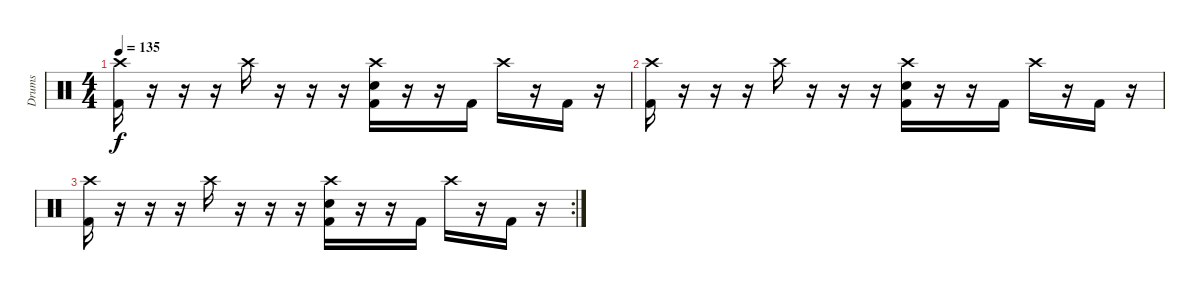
\track ("Drums" "Drums") {instrument percussion}
\staff {score}
\articulation defaults
\ts (4 4)
\tempo 135
\clef neutral
\ks c
("Crash high (hit)" "Kick (hit) 2").16{dy f} r.16 r.16 r.16 "Crash high (hit)".16 r.16 r.16 r.16 ("Crash high (hit)" "Electric Snare (hit)" "Kick (hit) 2").16 r.16 r.16 "Kick (hit) 2".16 "Crash high (hit)".16 r.16 "Kick (hit) 2".16 r.16 |
("Crash high (hit)" "Kick (hit) 2").16 r.16 r.16 r.16 "Crash high (hit)".16 r.16 r.16 r.16 ("Crash high (hit)" "Electric Snare (hit)" "Kick (hit) 2").16 r.16 r.16 "Kick (hit) 2".16 "Crash high (hit)".16 r.16 "Kick (hit) 2".16 r.16 |
\rc 2
("Crash high (hit)" "Kick (hit) 2").16 r.16 r.16 r.16 "Crash high (hit)".16 r.16 r.16 r.16 ("Crash high (hit)" "Electric Snare (hit)" "Kick (hit) 2").16 r.16 r.16 "Kick (hit) 2".16 "Crash high (hit)".16 r.16 "Kick (hit) 2".16 r.16
